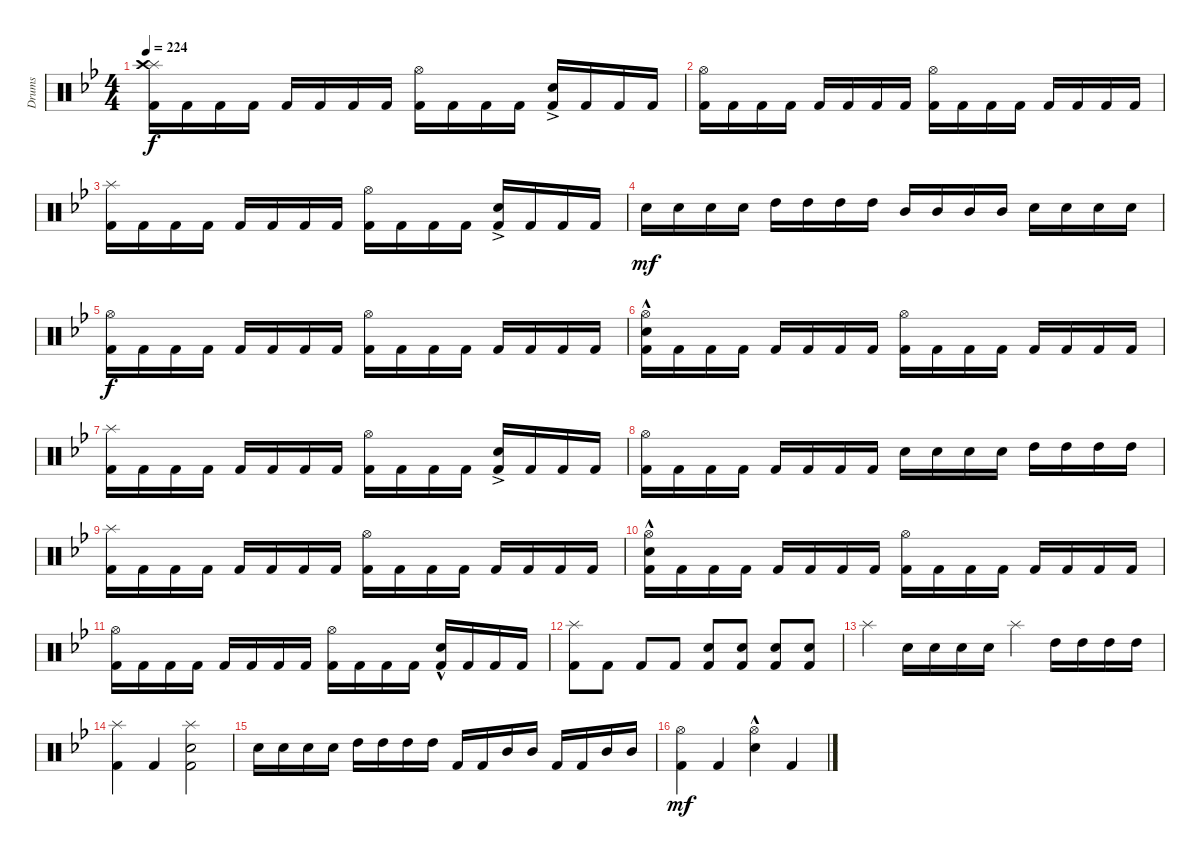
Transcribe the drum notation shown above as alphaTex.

\defaultSystemsLayout 4
\bracketExtendMode groupsimilarinstruments
\otherSystemsTrackNameOrientation horizontal
\track ("Drumkit" "Drums") {instrument percussion}
\staff {score}
\articulation defaults
\ts (4 4)
\tempo 224
\clef neutral
\scale
0.333333
\ks bb
("Splash (hit)"{acc forcenatural} "Crash high (hit)"{acc forcenatural} "Kick (hit) 2"{acc forcenatural}).16{dy f beam Down} "Kick (hit) 2"{acc forcenatural}.16{beam Down} "Kick (hit) 2"{acc forcenatural}.16{beam Down} "Kick (hit) 2"{acc forcenatural}.16{beam Down} "Kick (hit) 2"{acc forcenatural}.16{beam Up} "Kick (hit) 2"{acc forcenatural}.16{beam Up} "Kick (hit) 2"{acc forcenatural}.16{beam Up} "Kick (hit) 2"{acc forcenatural}.16{beam Up} ("Kick (hit) 2"{acc forcenatural} "Hi-Hat (open)"{acc forcenatural}).16{beam Down} "Kick (hit) 2"{acc forcenatural}.16{beam Down} "Kick (hit) 2"{acc forcenatural}.16{beam Down} "Kick (hit) 2"{acc forcenatural}.16{beam Down} ("Kick (hit) 2"{acc forcenatural} "Snare (hit) 2"{ac acc forcenatural}).16{beam Up} "Kick (hit) 2"{acc forcenatural}.16{beam Up} "Kick (hit) 2"{acc forcenatural}.16{beam Up} "Kick (hit) 2"{acc forcenatural}.16{beam Up} |
\scale
0.333333 ("Hi-Hat (open)"{acc forcenatural} "Kick (hit) 2"{acc forcenatural}).16{beam Down} "Kick (hit) 2"{acc forcenatural}.16{beam Down} "Kick (hit) 2"{acc forcenatural}.16{beam Down} "Kick (hit) 2"{acc forcenatural}.16{beam Down} "Kick (hit) 2"{acc forcenatural}.16{beam Up} "Kick (hit) 2"{acc forcenatural}.16{beam Up} "Kick (hit) 2"{acc forcenatural}.16{beam Up} "Kick (hit) 2"{acc forcenatural}.16{beam Up} ("Kick (hit) 2"{acc forcenatural} "Hi-Hat (open)"{acc forcenatural}).16{beam Down} "Kick (hit) 2"{acc forcenatural}.16{beam Down} "Kick (hit) 2"{acc forcenatural}.16{beam Down} "Kick (hit) 2"{acc forcenatural}.16{beam Down} "Kick (hit) 2"{acc forcenatural}.16{beam Up} "Kick (hit) 2"{acc forcenatural}.16{beam Up} "Kick (hit) 2"{acc forcenatural}.16{beam Up} "Kick (hit) 2"{acc forcenatural}.16{beam Up} |
\scale
0.333333 ("Splash (hit)"{acc forcenatural} "Kick (hit) 2"{acc forcenatural}).16{beam Down} "Kick (hit) 2"{acc forcenatural}.16{beam Down} "Kick (hit) 2"{acc forcenatural}.16{beam Down} "Kick (hit) 2"{acc forcenatural}.16{beam Down} "Kick (hit) 2"{acc forcenatural}.16{beam Up} "Kick (hit) 2"{acc forcenatural}.16{beam Up} "Kick (hit) 2"{acc forcenatural}.16{beam Up} "Kick (hit) 2"{acc forcenatural}.16{beam Up} ("Kick (hit) 2"{acc forcenatural} "Hi-Hat (open)"{acc forcenatural}).16{beam Down} "Kick (hit) 2"{acc forcenatural}.16{beam Down} "Kick (hit) 2"{acc forcenatural}.16{beam Down} "Kick (hit) 2"{acc forcenatural}.16{beam Down} ("Kick (hit) 2"{acc forcenatural} "Snare (hit) 2"{ac acc forcenatural}).16{beam Up} "Kick (hit) 2"{acc forcenatural}.16{beam Up} "Kick (hit) 2"{acc forcenatural}.16{beam Up} "Kick (hit) 2"{acc forcenatural}.16{beam Up} |
\scale
0.333333 "Snare (hit) 2"{acc forcenatural}.16{dy mf beam Down} "Snare (hit) 2"{acc forcenatural}.16{beam Down} "Snare (hit) 2"{acc forcenatural}.16{beam Down} "Snare (hit) 2"{acc forcenatural}.16{beam Down} "High Tom (hit)"{acc forcenatural}.16{beam Down} "High Tom (hit)"{acc forcenatural}.16{beam Down} "High Tom (hit)"{acc forcenatural}.16{beam Down} "High Tom (hit)"{acc forcenatural}.16{beam Down} "Mid Tom (hit)"{acc forcenatural}.16{beam Up} "Mid Tom (hit)"{acc forcenatural}.16{beam Up} "Mid Tom (hit)"{acc forcenatural}.16{beam Up} "Mid Tom (hit)"{acc forcenatural}.16{beam Up} "Snare (hit) 2"{acc forcenatural}.16{beam Down} "Snare (hit) 2"{acc forcenatural}.16{beam Down} "Snare (hit) 2"{acc forcenatural}.16{beam Down} "Snare (hit) 2"{acc forcenatural}.16{beam Down} |
\scale
0.333333 ("Hi-Hat (open)"{acc forcenatural} "Kick (hit) 2"{acc forcenatural}).16{dy f beam Down} "Kick (hit) 2"{acc forcenatural}.16{beam Down} "Kick (hit) 2"{acc forcenatural}.16{beam Down} "Kick (hit) 2"{acc forcenatural}.16{beam Down} "Kick (hit) 2"{acc forcenatural}.16{beam Up} "Kick (hit) 2"{acc forcenatural}.16{beam Up} "Kick (hit) 2"{acc forcenatural}.16{beam Up} "Kick (hit) 2"{acc forcenatural}.16{beam Up} ("Kick (hit) 2"{acc forcenatural} "Hi-Hat (open)"{acc forcenatural}).16{beam Down} "Kick (hit) 2"{acc forcenatural}.16{beam Down} "Kick (hit) 2"{acc forcenatural}.16{beam Down} "Kick (hit) 2"{acc forcenatural}.16{beam Down} "Kick (hit) 2"{acc forcenatural}.16{beam Up} "Kick (hit) 2"{acc forcenatural}.16{beam Up} "Kick (hit) 2"{acc forcenatural}.16{beam Up} "Kick (hit) 2"{acc forcenatural}.16{beam Up} |
\scale
0.333333 ("Hi-Hat (open)"{acc forcenatural} "Kick (hit) 2"{acc forcenatural} "Snare (hit) 2"{hac acc forcenatural}).16{beam Down} "Kick (hit) 2"{acc forcenatural}.16{beam Down} "Kick (hit) 2"{acc forcenatural}.16{beam Down} "Kick (hit) 2"{acc forcenatural}.16{beam Down} "Kick (hit) 2"{acc forcenatural}.16{beam Up} "Kick (hit) 2"{acc forcenatural}.16{beam Up} "Kick (hit) 2"{acc forcenatural}.16{beam Up} "Kick (hit) 2"{acc forcenatural}.16{beam Up} ("Kick (hit) 2"{acc forcenatural} "Hi-Hat (open)"{acc forcenatural}).16{beam Down} "Kick (hit) 2"{acc forcenatural}.16{beam Down} "Kick (hit) 2"{acc forcenatural}.16{beam Down} "Kick (hit) 2"{acc forcenatural}.16{beam Down} "Kick (hit) 2"{acc forcenatural}.16{beam Up} "Kick (hit) 2"{acc forcenatural}.16{beam Up} "Kick (hit) 2"{acc forcenatural}.16{beam Up} "Kick (hit) 2"{acc forcenatural}.16{beam Up} |
\scale
0.333333 ("Splash (hit)"{acc forcenatural} "Kick (hit) 2"{acc forcenatural}).16{beam Down} "Kick (hit) 2"{acc forcenatural}.16{beam Down} "Kick (hit) 2"{acc forcenatural}.16{beam Down} "Kick (hit) 2"{acc forcenatural}.16{beam Down} "Kick (hit) 2"{acc forcenatural}.16{beam Up} "Kick (hit) 2"{acc forcenatural}.16{beam Up} "Kick (hit) 2"{acc forcenatural}.16{beam Up} "Kick (hit) 2"{acc forcenatural}.16{beam Up} ("Kick (hit) 2"{acc forcenatural} "Hi-Hat (open)"{acc forcenatural}).16{beam Down} "Kick (hit) 2"{acc forcenatural}.16{beam Down} "Kick (hit) 2"{acc forcenatural}.16{beam Down} "Kick (hit) 2"{acc forcenatural}.16{beam Down} ("Kick (hit) 2"{acc forcenatural} "Snare (hit) 2"{ac acc forcenatural}).16{beam Up} "Kick (hit) 2"{acc forcenatural}.16{beam Up} "Kick (hit) 2"{acc forcenatural}.16{beam Up} "Kick (hit) 2"{acc forcenatural}.16{beam Up} |
\scale
0.333333 ("Hi-Hat (open)"{acc forcenatural} "Kick (hit) 2"{acc forcenatural}).16{beam Down} "Kick (hit) 2"{acc forcenatural}.16{beam Down} "Kick (hit) 2"{acc forcenatural}.16{beam Down} "Kick (hit) 2"{acc forcenatural}.16{beam Down} "Kick (hit) 2"{acc forcenatural}.16{beam Up} "Kick (hit) 2"{acc forcenatural}.16{beam Up} "Kick (hit) 2"{acc forcenatural}.16{beam Up} "Kick (hit) 2"{acc forcenatural}.16{beam Up} "Snare (hit) 2"{acc forcenatural}.16{beam Down} "Snare (hit) 2"{acc forcenatural}.16{beam Down} "Snare (hit) 2"{acc forcenatural}.16{beam Down} "Snare (hit) 2"{acc forcenatural}.16{beam Down} "High Tom (hit)"{acc forcenatural}.16{beam Down} "High Tom (hit)"{acc forcenatural}.16{beam Down} "High Tom (hit)"{acc forcenatural}.16{beam Down} "High Tom (hit)"{acc forcenatural}.16{beam Down} |
\scale
0.333333 ("Splash (hit)"{acc forcenatural} "Kick (hit) 2"{acc forcenatural}).16{beam Down} "Kick (hit) 2"{acc forcenatural}.16{beam Down} "Kick (hit) 2"{acc forcenatural}.16{beam Down} "Kick (hit) 2"{acc forcenatural}.16{beam Down} "Kick (hit) 2"{acc forcenatural}.16{beam Up} "Kick (hit) 2"{acc forcenatural}.16{beam Up} "Kick (hit) 2"{acc forcenatural}.16{beam Up} "Kick (hit) 2"{acc forcenatural}.16{beam Up} ("Kick (hit) 2"{acc forcenatural} "Hi-Hat (open)"{acc forcenatural}).16{beam Down} "Kick (hit) 2"{acc forcenatural}.16{beam Down} "Kick (hit) 2"{acc forcenatural}.16{beam Down} "Kick (hit) 2"{acc forcenatural}.16{beam Down} "Kick (hit) 2"{acc forcenatural}.16{beam Up} "Kick (hit) 2"{acc forcenatural}.16{beam Up} "Kick (hit) 2"{acc forcenatural}.16{beam Up} "Kick (hit) 2"{acc forcenatural}.16{beam Up} |
\scale
0.333333 ("Hi-Hat (open)"{acc forcenatural} "Kick (hit) 2"{acc forcenatural} "Snare (hit) 2"{hac acc forcenatural}).16{beam Down} "Kick (hit) 2"{acc forcenatural}.16{beam Down} "Kick (hit) 2"{acc forcenatural}.16{beam Down} "Kick (hit) 2"{acc forcenatural}.16{beam Down} "Kick (hit) 2"{acc forcenatural}.16{beam Up} "Kick (hit) 2"{acc forcenatural}.16{beam Up} "Kick (hit) 2"{acc forcenatural}.16{beam Up} "Kick (hit) 2"{acc forcenatural}.16{beam Up} ("Kick (hit) 2"{acc forcenatural} "Hi-Hat (open)"{acc forcenatural}).16{beam Down} "Kick (hit) 2"{acc forcenatural}.16{beam Down} "Kick (hit) 2"{acc forcenatural}.16{beam Down} "Kick (hit) 2"{acc forcenatural}.16{beam Down} "Kick (hit) 2"{acc forcenatural}.16{beam Up} "Kick (hit) 2"{acc forcenatural}.16{beam Up} "Kick (hit) 2"{acc forcenatural}.16{beam Up} "Kick (hit) 2"{acc forcenatural}.16{beam Up} |
\scale
0.333333 ("Hi-Hat (open)"{acc forcenatural} "Kick (hit) 2"{acc forcenatural}).16{beam Down} "Kick (hit) 2"{acc forcenatural}.16{beam Down} "Kick (hit) 2"{acc forcenatural}.16{beam Down} "Kick (hit) 2"{acc forcenatural}.16{beam Down} "Kick (hit) 2"{acc forcenatural}.16{beam Up} "Kick (hit) 2"{acc forcenatural}.16{beam Up} "Kick (hit) 2"{acc forcenatural}.16{beam Up} "Kick (hit) 2"{acc forcenatural}.16{beam Up} ("Kick (hit) 2"{acc forcenatural} "Hi-Hat (open)"{acc forcenatural}).16{beam Down} "Kick (hit) 2"{acc forcenatural}.16{beam Down} "Kick (hit) 2"{acc forcenatural}.16{beam Down} "Kick (hit) 2"{acc forcenatural}.16{beam Down} ("Kick (hit) 2"{acc forcenatural} "Snare (hit) 2"{hac acc forcenatural}).16{beam Up} "Kick (hit) 2"{acc forcenatural}.16{beam Up} "Kick (hit) 2"{acc forcenatural}.16{beam Up} "Kick (hit) 2"{acc forcenatural}.16{beam Up} |
\scale
0.333333 ("Kick (hit) 2"{acc forcenatural} "Splash (hit)"{acc forcenatural}).8{beam Down} "Kick (hit) 2"{acc forcenatural}.8{beam Down} "Kick (hit) 2"{acc forcenatural}.8{beam Up} "Kick (hit) 2"{acc forcenatural}.8{beam Up} ("Kick (hit) 2"{acc forcenatural} "Snare (hit) 2"{acc forcenatural}).8{beam Up} ("Kick (hit) 2"{acc forcenatural} "Snare (hit) 2"{acc forcenatural}).8{beam Up} ("Kick (hit) 2"{acc forcenatural} "Snare (hit) 2"{acc forcenatural}).8{beam Up} ("Kick (hit) 2"{acc forcenatural} "Snare (hit) 2"{acc forcenatural}).8{beam Up} |
\scale
0.333333 "Splash (hit)"{acc forcenatural}.4{beam Down} "Snare (hit) 2"{acc forcenatural}.16{beam Down} "Snare (hit) 2"{acc forcenatural}.16{beam Down} "Snare (hit) 2"{acc forcenatural}.16{beam Down} "Snare (hit) 2"{acc forcenatural}.16{beam Down} "Splash (hit)"{acc forcenatural}.4{beam Down} "High Tom (hit)"{acc forcenatural}.16{beam Down} "High Tom (hit)"{acc forcenatural}.16{beam Down} "High Tom (hit)"{acc forcenatural}.16{beam Down} "High Tom (hit)"{acc forcenatural}.16{beam Down} |
\scale
0.333333 ("Splash (hit)"{acc forcenatural} "Kick (hit) 2"{acc forcenatural}).4{beam Down} "Kick (hit) 2"{acc forcenatural}.4{beam Up} ("Kick (hit) 2"{acc forcenatural} "Snare (hit) 2"{acc forcenatural} "Splash (hit)"{acc forcenatural}).2{beam Down} |
\scale
0.333333 "Snare (hit) 2"{acc forcenatural}.16{beam Down} "Snare (hit) 2"{acc forcenatural}.16{beam Down} "Snare (hit) 2"{acc forcenatural}.16{beam Down} "Snare (hit) 2"{acc forcenatural}.16{beam Down} "High Tom (hit)"{acc forcenatural}.16{beam Down} "High Tom (hit)"{acc forcenatural}.16{beam Down} "High Tom (hit)"{acc forcenatural}.16{beam Down} "High Tom (hit)"{acc forcenatural}.16{beam Down} "Kick (hit) 2"{acc forcenatural}.16{beam Up} "Kick (hit) 2"{acc forcenatural}.16{beam Up} "Mid Tom (hit)"{acc forcenatural}.16{beam Up} "Mid Tom (hit)"{acc forcenatural}.16{beam Up} "Kick (hit) 2"{acc forcenatural}.16{beam Up} "Kick (hit) 2"{acc forcenatural}.16{beam Up} "Mid Tom (hit)"{acc forcenatural}.16{beam Up} "Mid Tom (hit)"{acc forcenatural}.16{beam Up} |
\scale
0.333333 ("Kick (hit) 2"{acc forcenatural} "Hi-Hat (open)"{acc forcenatural}).4{dy mf beam Down} "Kick (hit) 2"{acc forcenatural}.4{beam Up} ("Snare (hit) 2"{hac acc forcenatural} "Hi-Hat (open)"{acc forcenatural}).4{beam Down} "Kick (hit) 2"{acc forcenatural}.4{beam Up}
